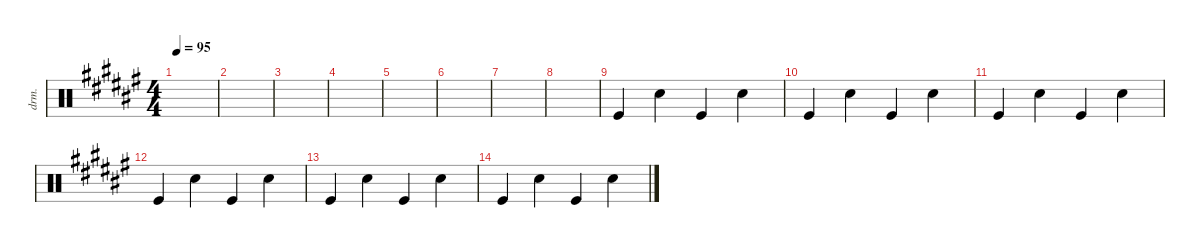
\defaultSystemsLayout 4
\hideDynamics
\bracketExtendMode nobrackets
\otherSystemsTrackNameOrientation horizontal
\track ("Drumkit" "drm.") {instrument percussion}
\staff {score}
\articulation defaults
\ts (4 4)
\scale
1.08716
\tempo 95
\accidentals auto
\clef neutral
\ottava regular
\simile none
\ks f#
|
\scale
0.970947 |
\scale
0.970947 |
\scale
0.970947 |
\scale
1.07137 |
\scale
0.955158 |
\scale
0.986737 |
\scale
0.986737 |
\scale
1.09505 "Kick (hit)".4 "Snare (hit) 2".4 "Kick (hit)".4 "Snare (hit) 2".4 |
\scale
0.968316 "Kick (hit)".4 "Snare (hit) 2".4 "Kick (hit)".4 "Snare (hit) 2".4 |
\scale
0.968316 "Kick (hit)".4 "Snare (hit) 2".4 "Kick (hit)".4 "Snare (hit) 2".4 |
\scale
0.968316 "Kick (hit)".4 "Snare (hit) 2".4 "Kick (hit)".4 "Snare (hit) 2".4 |
\scale
1.08189 "Kick (hit)".4 "Snare (hit) 2".4 "Kick (hit)".4 "Snare (hit) 2".4 |
\scale
0.955158 "Kick (hit)".4 "Snare (hit) 2".4 "Kick (hit)".4 "Snare (hit) 2".4 |
\scale
0.965684 |
\scale
0.997263
